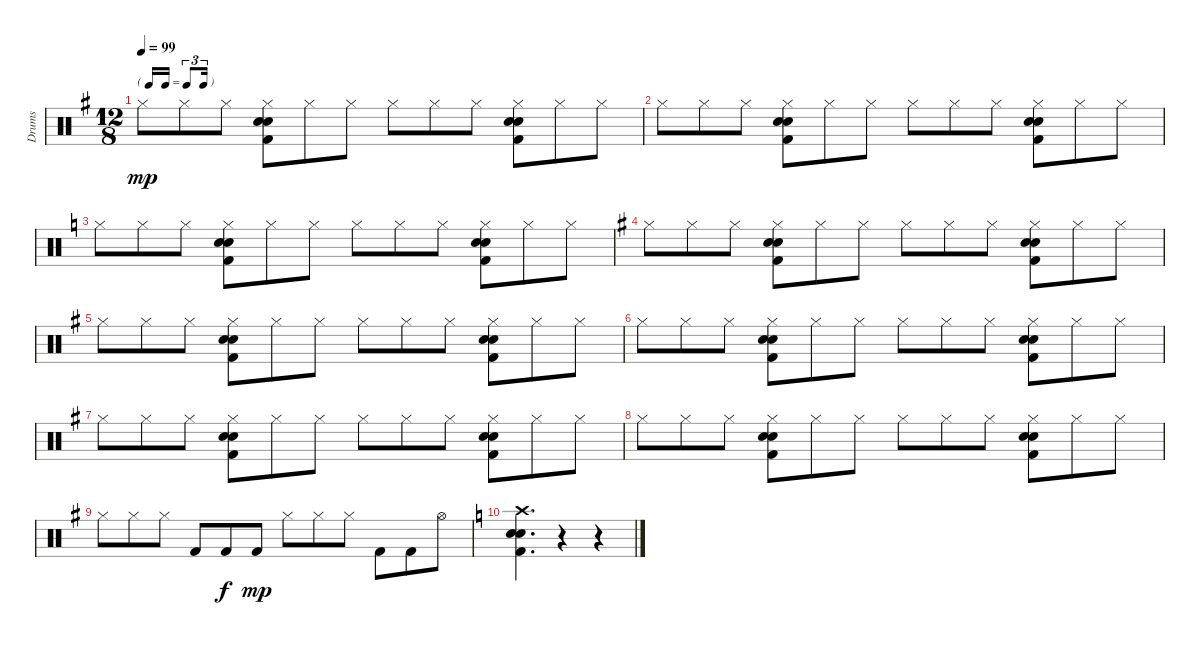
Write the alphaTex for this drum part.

\track ("Drums" "Drums") {instrument percussion}
\staff {score}
\articulation defaults
\ts (12 8)
\tf triplet16th
\tempo 99
\clef neutral
\ks g "Hi-Hat (closed)".8{dy mp} "Hi-Hat (closed)".8 "Hi-Hat (closed)".8
("Electric Snare (hit)" "Electric Snare (hit)" "Kick (hit) 2" "Hi-Hat (closed)").8 "Hi-Hat (closed)".8 "Hi-Hat (closed)".8 "Hi-Hat (closed)".8 "Hi-Hat (closed)".8 "Hi-Hat (closed)".8 ("Kick (hit) 2" "Electric Snare (hit)" "Electric Snare (hit)" "Hi-Hat (closed)").8 "Hi-Hat (closed)".8 "Hi-Hat (closed)".8 |
"Hi-Hat (closed)".8 "Hi-Hat (closed)".8 "Hi-Hat (closed)".8 ("Electric Snare (hit)" "Electric Snare (hit)" "Kick (hit) 2" "Hi-Hat (closed)").8 "Hi-Hat (closed)".8 "Hi-Hat (closed)".8 "Hi-Hat (closed)".8 "Hi-Hat (closed)".8 "Hi-Hat (closed)".8 ("Kick (hit) 2" "Electric Snare (hit)" "Electric Snare (hit)" "Hi-Hat (closed)").8 "Hi-Hat (closed)".8 "Hi-Hat (closed)".8 |
\ks c "Hi-Hat (closed)".8 "Hi-Hat (closed)".8 "Hi-Hat (closed)".8
("Electric Snare (hit)" "Electric Snare (hit)" "Kick (hit) 2" "Hi-Hat (closed)").8 "Hi-Hat (closed)".8 "Hi-Hat (closed)".8 "Hi-Hat (closed)".8 "Hi-Hat (closed)".8 "Hi-Hat (closed)".8 ("Kick (hit) 2" "Electric Snare (hit)" "Electric Snare (hit)" "Hi-Hat (closed)").8 "Hi-Hat (closed)".8 "Hi-Hat (closed)".8 |
\ks g "Hi-Hat (closed)".8 "Hi-Hat (closed)".8 "Hi-Hat (closed)".8
("Electric Snare (hit)" "Electric Snare (hit)" "Kick (hit) 2" "Hi-Hat (closed)").8 "Hi-Hat (closed)".8 "Hi-Hat (closed)".8 "Hi-Hat (closed)".8 "Hi-Hat (closed)".8 "Hi-Hat (closed)".8 ("Kick (hit) 2" "Electric Snare (hit)" "Electric Snare (hit)" "Hi-Hat (closed)").8 "Hi-Hat (closed)".8 "Hi-Hat (closed)".8 |
"Hi-Hat (closed)".8 "Hi-Hat (closed)".8 "Hi-Hat (closed)".8 ("Electric Snare (hit)" "Electric Snare (hit)" "Kick (hit) 2" "Hi-Hat (closed)").8 "Hi-Hat (closed)".8 "Hi-Hat (closed)".8 "Hi-Hat (closed)".8 "Hi-Hat (closed)".8 "Hi-Hat (closed)".8 ("Kick (hit) 2" "Electric Snare (hit)" "Electric Snare (hit)" "Hi-Hat (closed)").8 "Hi-Hat (closed)".8 "Hi-Hat (closed)".8 |
"Hi-Hat (closed)".8 "Hi-Hat (closed)".8 "Hi-Hat (closed)".8 ("Electric Snare (hit)" "Electric Snare (hit)" "Kick (hit) 2" "Hi-Hat (closed)").8 "Hi-Hat (closed)".8 "Hi-Hat (closed)".8 "Hi-Hat (closed)".8 "Hi-Hat (closed)".8 "Hi-Hat (closed)".8 ("Kick (hit) 2" "Electric Snare (hit)" "Electric Snare (hit)" "Hi-Hat (closed)").8 "Hi-Hat (closed)".8 "Hi-Hat (closed)".8 |
"Hi-Hat (closed)".8 "Hi-Hat (closed)".8 "Hi-Hat (closed)".8 ("Electric Snare (hit)" "Electric Snare (hit)" "Kick (hit) 2" "Hi-Hat (closed)").8 "Hi-Hat (closed)".8 "Hi-Hat (closed)".8 "Hi-Hat (closed)".8 "Hi-Hat (closed)".8 "Hi-Hat (closed)".8 ("Kick (hit) 2" "Electric Snare (hit)" "Electric Snare (hit)" "Hi-Hat (closed)").8 "Hi-Hat (closed)".8 "Hi-Hat (closed)".8 |
"Hi-Hat (closed)".8 "Hi-Hat (closed)".8 "Hi-Hat (closed)".8 ("Electric Snare (hit)" "Electric Snare (hit)" "Kick (hit) 2" "Hi-Hat (closed)").8 "Hi-Hat (closed)".8 "Hi-Hat (closed)".8 "Hi-Hat (closed)".8 "Hi-Hat (closed)".8 "Hi-Hat (closed)".8 ("Kick (hit) 2" "Electric Snare (hit)" "Electric Snare (hit)" "Hi-Hat (closed)").8 "Hi-Hat (closed)".8 "Hi-Hat (closed)".8 |
"Hi-Hat (closed)".8 "Hi-Hat (closed)".8 "Hi-Hat (closed)".8 "Kick (hit) 2".8 "Kick (hit) 2".8{dy f} "Kick (hit) 2".8{dy mp} "Hi-Hat (closed)".8 "Hi-Hat (closed)".8 "Hi-Hat (closed)".8 "Kick (hit) 2".8 "Kick (hit) 2".8 "Hi-Hat (open)".8 |
\ks c
("Kick (hit) 2" "Electric Snare (hit)" "Electric Snare (hit)" "Crash high (hit)").4{d} r.4 r.4
